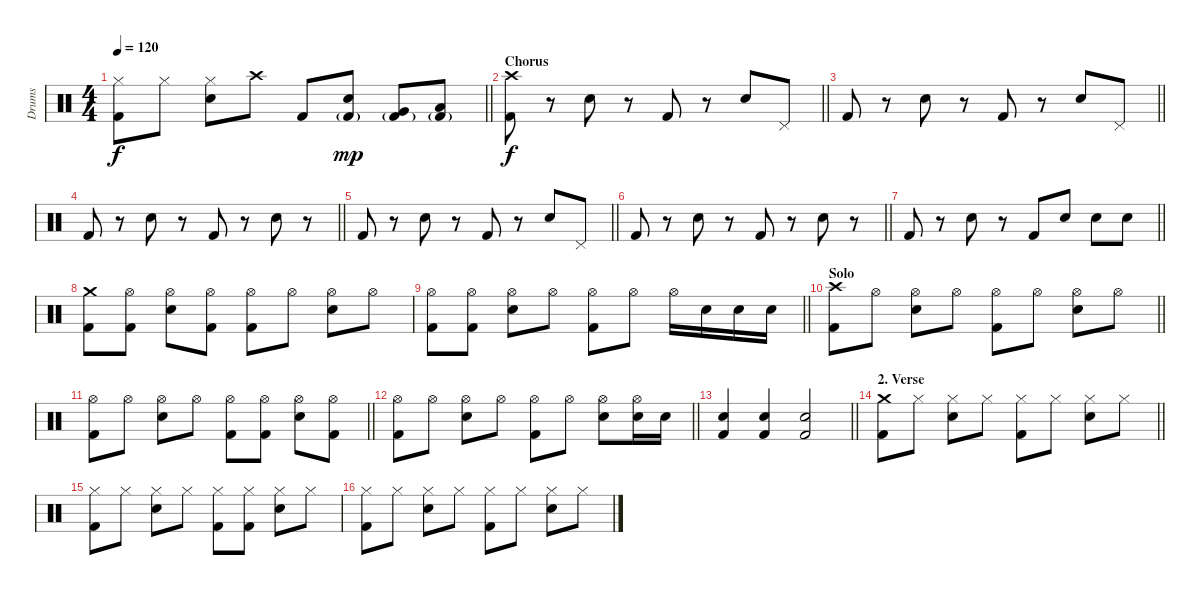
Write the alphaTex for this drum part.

\track ("Drums" "Drums") {instrument percussion}
\staff {score}
\articulation defaults
\ts (4 4)
\tempo 120
\clef neutral
\barLineRight lightlight
\ks c
("Hi-Hat (closed)" "Kick (hit) 2").8{dy f} "Hi-Hat (closed)".8 ("Hi-Hat (closed)" "Snare (hit) 2").8 "Crash high (hit)".8 "Kick (hit) 2".8 ("Snare (hit) 2" "Kick (hit) 2"{g}).8{dy mp} ("Very Low Tom (hit)" "Kick (hit) 2"{g}).8 ("Low Floor Tom (hit)" "Kick (hit) 2"{g}).8 |
\section ("" "Chorus")
\barLineRight lightlight
("Crash high (hit)" "Kick (hit) 2").8{dy f} r.8 "Snare (hit) 2".8 r.8 "Kick (hit) 2".8 r.8 "Snare (hit) 2".8 "Pedal Hi-Hat (hit)".8 |
\barLineRight lightlight "Kick (hit) 2".8
r.8 "Snare (hit) 2".8 r.8 "Kick (hit) 2".8 r.8 "Snare (hit) 2".8 "Pedal Hi-Hat (hit)".8 |
\barLineRight lightlight "Kick (hit) 2".8
r.8 "Snare (hit) 2".8 r.8 "Kick (hit) 2".8 r.8 "Snare (hit) 2".8 r.8 |
\barLineRight lightlight "Kick (hit) 2".8
r.8 "Snare (hit) 2".8 r.8 "Kick (hit) 2".8 r.8 "Snare (hit) 2".8 "Pedal Hi-Hat (hit)".8 |
\barLineRight lightlight "Kick (hit) 2".8
r.8 "Snare (hit) 2".8 r.8 "Kick (hit) 2".8 r.8 "Snare (hit) 2".8 r.8 |
\barLineRight lightlight "Kick (hit) 2".8
r.8 "Snare (hit) 2".8 r.8 "Kick (hit) 2".8 "Snare (hit) 2".8 "Snare (hit) 2".8 "Snare (hit) 2".8 |
("Crash medium (hit)" "Kick (hit) 2").8 ("Hi-Hat (open)" "Kick (hit) 2").8 ("Hi-Hat (open)" "Snare (hit) 2").8 ("Hi-Hat (open)" "Kick (hit) 2").8 ("Hi-Hat (open)" "Kick (hit) 2").8 "Hi-Hat (open)".8 ("Hi-Hat (open)" "Snare (hit) 2").8 "Hi-Hat (open)".8 |
\barLineRight lightlight
("Hi-Hat (open)" "Kick (hit) 2").8 ("Hi-Hat (open)" "Kick (hit) 2").8 ("Hi-Hat (open)" "Snare (hit) 2").8 "Hi-Hat (open)".8 ("Hi-Hat (open)" "Kick (hit) 2").8 "Hi-Hat (open)".8 "Hi-Hat (open)".16 "Snare (hit) 2".16 "Snare (hit) 2".16 "Snare (hit) 2".16 |
\section ("" "Solo")
\barLineRight lightlight
("Crash high (hit)" "Kick (hit) 2").8 "Hi-Hat (open)".8 ("Hi-Hat (open)" "Snare (hit) 2").8 "Hi-Hat (open)".8 ("Hi-Hat (open)" "Kick (hit) 2").8 "Hi-Hat (open)".8 ("Hi-Hat (open)" "Snare (hit) 2").8 "Hi-Hat (open)".8 |
\barLineRight lightlight
("Hi-Hat (open)" "Kick (hit) 2").8 "Hi-Hat (open)".8 ("Hi-Hat (open)" "Snare (hit) 2").8 "Hi-Hat (open)".8 ("Hi-Hat (open)" "Kick (hit) 2").8 ("Hi-Hat (open)" "Kick (hit) 2").8 ("Hi-Hat (open)" "Snare (hit) 2").8 ("Hi-Hat (open)" "Kick (hit) 2").8 |
\barLineRight lightlight
("Hi-Hat (open)" "Kick (hit) 2").8 "Hi-Hat (open)".8 ("Hi-Hat (open)" "Snare (hit) 2").8 "Hi-Hat (open)".8 ("Hi-Hat (open)" "Kick (hit) 2").8 "Hi-Hat (open)".8 ("Hi-Hat (open)" "Snare (hit) 2").8 ("Hi-Hat (open)" "Snare (hit) 2").16 "Snare (hit) 2".16 |
\barLineRight lightlight
("Snare (hit) 2" "Kick (hit) 2").4 ("Snare (hit) 2" "Kick (hit) 2").4 ("Snare (hit) 2" "Kick (hit) 2").2 |
\section ("" "2. Verse")
\barLineRight lightlight
("Crash medium (hit)" "Kick (hit) 2").8 "Hi-Hat (closed)".8 ("Hi-Hat (closed)" "Snare (hit) 2").8 "Hi-Hat (closed)".8 ("Hi-Hat (closed)" "Kick (hit) 2").8 "Hi-Hat (closed)".8 ("Hi-Hat (closed)" "Snare (hit) 2").8 "Hi-Hat (closed)".8 |
("Hi-Hat (closed)" "Kick (hit) 2").8 "Hi-Hat (closed)".8 ("Hi-Hat (closed)" "Snare (hit) 2").8 "Hi-Hat (closed)".8 ("Hi-Hat (closed)" "Kick (hit) 2").8 ("Hi-Hat (closed)" "Kick (hit) 2").8 ("Hi-Hat (closed)" "Snare (hit) 2").8 "Hi-Hat (closed)".8 |
("Hi-Hat (closed)" "Kick (hit) 2").8 "Hi-Hat (closed)".8 ("Hi-Hat (closed)" "Snare (hit) 2").8 "Hi-Hat (closed)".8 ("Hi-Hat (closed)" "Kick (hit) 2").8 "Hi-Hat (closed)".8 ("Hi-Hat (closed)" "Snare (hit) 2").8 "Hi-Hat (closed)".8
